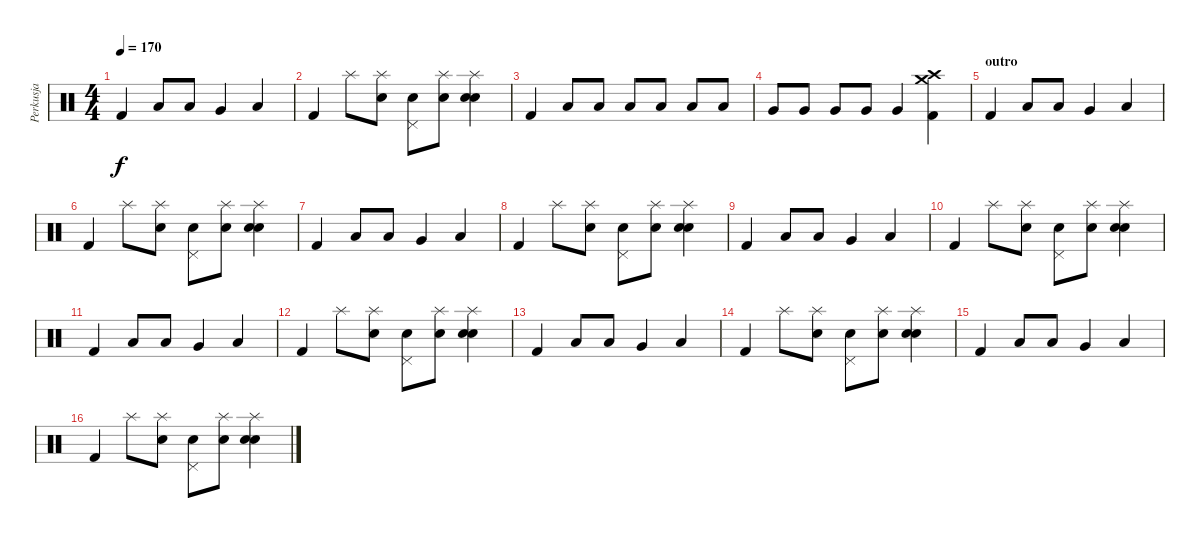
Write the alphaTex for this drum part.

\track ("Perkusja" "Perkusja") {instrument percussion}
\staff {score}
\articulation defaults
\ts (4 4)
\tempo 170
\clef neutral
\ks c "Kick (hit) 2".4{dy f} "Low Tom (hit)".8 "Low Tom (hit)".8 "Very Low Tom (hit)".4 "Low Tom (hit)".4
|
"Kick (hit) 2".4 "Splash (hit)".8 ("Splash (hit)" "Electric Snare (hit)").8 ("Pedal Hi-Hat (hit)" "Electric Snare (hit)").8 ("Splash (hit)" "Electric Snare (hit)").8 ("Splash (hit)" "Electric Snare (hit)" "Snare (hit) 2").4 |
"Kick (hit) 2".4 "Low Tom (hit)".8 "Low Tom (hit)".8 "Low Tom (hit)".8 "Low Tom (hit)".8 "Low Tom (hit)".8 "Low Tom (hit)".8 |
"Very Low Tom (hit)".8 "Very Low Tom (hit)".8 "Very Low Tom (hit)".8 "Very Low Tom (hit)".8 "Very Low Tom (hit)".4 ("Crash high (hit)" "Crash medium (hit)" "Kick (hit) 2").4 |
\section ("" "outro")
"Kick (hit) 2".4 "Low Tom (hit)".8 "Low Tom (hit)".8 "Very Low Tom (hit)".4 "Low Tom (hit)".4 |
"Kick (hit) 2".4 "Splash (hit)".8 ("Splash (hit)" "Electric Snare (hit)").8 ("Pedal Hi-Hat (hit)" "Electric Snare (hit)").8 ("Splash (hit)" "Electric Snare (hit)").8 ("Splash (hit)" "Electric Snare (hit)" "Snare (hit) 2").4 |
"Kick (hit) 2".4 "Low Tom (hit)".8 "Low Tom (hit)".8 "Very Low Tom (hit)".4 "Low Tom (hit)".4 |
"Kick (hit) 2".4 "Splash (hit)".8 ("Splash (hit)" "Electric Snare (hit)").8 ("Pedal Hi-Hat (hit)" "Electric Snare (hit)").8 ("Splash (hit)" "Electric Snare (hit)").8 ("Splash (hit)" "Electric Snare (hit)" "Snare (hit) 2").4 |
"Kick (hit) 2".4 "Low Tom (hit)".8 "Low Tom (hit)".8 "Very Low Tom (hit)".4 "Low Tom (hit)".4 |
"Kick (hit) 2".4 "Splash (hit)".8 ("Splash (hit)" "Electric Snare (hit)").8 ("Pedal Hi-Hat (hit)" "Electric Snare (hit)").8 ("Splash (hit)" "Electric Snare (hit)").8 ("Splash (hit)" "Electric Snare (hit)" "Snare (hit) 2").4 |
"Kick (hit) 2".4 "Low Tom (hit)".8 "Low Tom (hit)".8 "Very Low Tom (hit)".4 "Low Tom (hit)".4 |
"Kick (hit) 2".4 "Splash (hit)".8 ("Splash (hit)" "Electric Snare (hit)").8 ("Pedal Hi-Hat (hit)" "Electric Snare (hit)").8 ("Splash (hit)" "Electric Snare (hit)").8 ("Splash (hit)" "Electric Snare (hit)" "Snare (hit) 2").4 |
"Kick (hit) 2".4 "Low Tom (hit)".8 "Low Tom (hit)".8 "Very Low Tom (hit)".4 "Low Tom (hit)".4 |
"Kick (hit) 2".4 "Splash (hit)".8 ("Splash (hit)" "Electric Snare (hit)").8 ("Pedal Hi-Hat (hit)" "Electric Snare (hit)").8 ("Splash (hit)" "Electric Snare (hit)").8 ("Splash (hit)" "Electric Snare (hit)" "Snare (hit) 2").4 |
"Kick (hit) 2".4 "Low Tom (hit)".8 "Low Tom (hit)".8 "Very Low Tom (hit)".4 "Low Tom (hit)".4 |
"Kick (hit) 2".4 "Splash (hit)".8 ("Splash (hit)" "Electric Snare (hit)").8 ("Pedal Hi-Hat (hit)" "Electric Snare (hit)").8 ("Splash (hit)" "Electric Snare (hit)").8 ("Splash (hit)" "Electric Snare (hit)" "Snare (hit) 2").4
